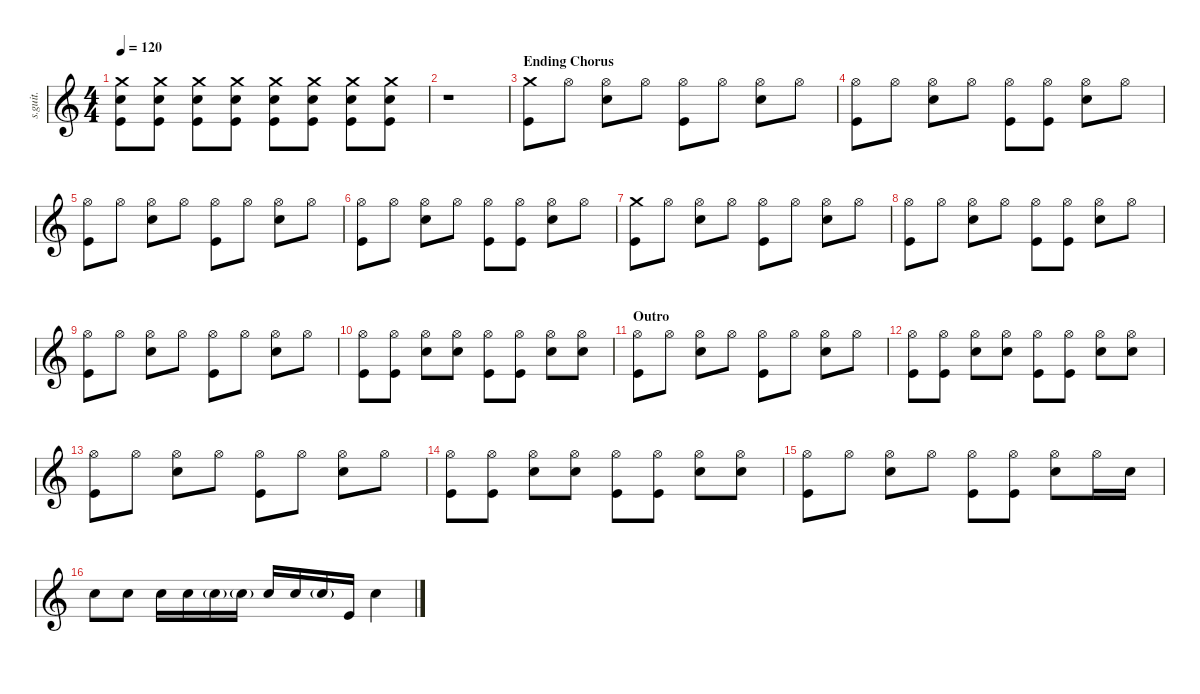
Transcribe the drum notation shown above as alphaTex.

\defaultSystemsLayout 4
\hideDynamics
\bracketExtendMode nobrackets
\track ("Patrick Wilson - Drums" "s.guit.") {instrument percussion}
\staff {score}
\articulation defaults
\ts (4 4)
\tempo 120
\clef g2
\ks c
("Crash medium (hit)" "Snare (hit) 2" "Kick (hit)").8{lyrics (0 "") lyrics (1 "") lyrics (2 "") lyrics (3 "") lyrics (4 "") dy f} ("Crash medium (hit)" "Snare (hit) 2" "Kick (hit)").8{lyrics (0 "") lyrics (1 "") lyrics (2 "") lyrics (3 "") lyrics (4 "")} ("Crash medium (hit)" "Snare (hit) 2" "Kick (hit)").8{lyrics (0 "") lyrics (1 "") lyrics (2 "") lyrics (3 "") lyrics (4 "")} ("Crash medium (hit)" "Snare (hit) 2" "Kick (hit)").8{lyrics (0 "") lyrics (1 "") lyrics (2 "") lyrics (3 "") lyrics (4 "")} ("Crash medium (hit)" "Snare (hit) 2" "Kick (hit)").8{lyrics (0 "") lyrics (1 "") lyrics (2 "") lyrics (3 "") lyrics (4 "")} ("Crash medium (hit)" "Snare (hit) 2" "Kick (hit)").8{lyrics (0 "") lyrics (1 "") lyrics (2 "") lyrics (3 "") lyrics (4 "")} ("Crash medium (hit)" "Snare (hit) 2" "Kick (hit)").8{lyrics (0 "") lyrics (1 "") lyrics (2 "") lyrics (3 "") lyrics (4 "")} ("Crash medium (hit)" "Snare (hit) 2" "Kick (hit)").8{lyrics (0 "") lyrics (1 "") lyrics (2 "") lyrics (3 "") lyrics (4 "")} |
r.1 |
\section ("" "Ending Chorus")
("Crash medium (hit)" "Kick (hit)").8{lyrics (0 "") lyrics (1 "") lyrics (2 "") lyrics (3 "") lyrics (4 "")} "Hi-Hat (open)".8{lyrics (0 "") lyrics (1 "") lyrics (2 "") lyrics (3 "") lyrics (4 "")} ("Hi-Hat (open)" "Snare (hit) 2").8{lyrics (0 "") lyrics (1 "") lyrics (2 "") lyrics (3 "") lyrics (4 "")} "Hi-Hat (open)".8{lyrics (0 "") lyrics (1 "") lyrics (2 "") lyrics (3 "") lyrics (4 "")} ("Hi-Hat (open)" "Kick (hit)").8{lyrics (0 "") lyrics (1 "") lyrics (2 "") lyrics (3 "") lyrics (4 "")} "Hi-Hat (open)".8{lyrics (0 "") lyrics (1 "") lyrics (2 "") lyrics (3 "") lyrics (4 "")} ("Hi-Hat (open)" "Snare (hit) 2").8{lyrics (0 "") lyrics (1 "") lyrics (2 "") lyrics (3 "") lyrics (4 "")} "Hi-Hat (open)".8{lyrics (0 "") lyrics (1 "") lyrics (2 "") lyrics (3 "") lyrics (4 "")} |
("Hi-Hat (open)" "Kick (hit)").8{lyrics (0 "") lyrics (1 "") lyrics (2 "") lyrics (3 "") lyrics (4 "")} "Hi-Hat (open)".8{lyrics (0 "") lyrics (1 "") lyrics (2 "") lyrics (3 "") lyrics (4 "")} ("Hi-Hat (open)" "Snare (hit) 2").8{lyrics (0 "") lyrics (1 "") lyrics (2 "") lyrics (3 "") lyrics (4 "")} "Hi-Hat (open)".8{lyrics (0 "") lyrics (1 "") lyrics (2 "") lyrics (3 "") lyrics (4 "")} ("Hi-Hat (open)" "Kick (hit)").8{lyrics (0 "") lyrics (1 "") lyrics (2 "") lyrics (3 "") lyrics (4 "")} ("Hi-Hat (open)" "Kick (hit)").8{lyrics (0 "") lyrics (1 "") lyrics (2 "") lyrics (3 "") lyrics (4 "")} ("Hi-Hat (open)" "Snare (hit) 2").8{lyrics (0 "") lyrics (1 "") lyrics (2 "") lyrics (3 "") lyrics (4 "")} "Hi-Hat (open)".8{lyrics (0 "") lyrics (1 "") lyrics (2 "") lyrics (3 "") lyrics (4 "")} |
("Hi-Hat (open)" "Kick (hit)").8{lyrics (0 "") lyrics (1 "") lyrics (2 "") lyrics (3 "") lyrics (4 "")} "Hi-Hat (open)".8{lyrics (0 "") lyrics (1 "") lyrics (2 "") lyrics (3 "") lyrics (4 "")} ("Hi-Hat (open)" "Snare (hit) 2").8{lyrics (0 "") lyrics (1 "") lyrics (2 "") lyrics (3 "") lyrics (4 "")} "Hi-Hat (open)".8{lyrics (0 "") lyrics (1 "") lyrics (2 "") lyrics (3 "") lyrics (4 "")} ("Hi-Hat (open)" "Kick (hit)").8{lyrics (0 "") lyrics (1 "") lyrics (2 "") lyrics (3 "") lyrics (4 "")} "Hi-Hat (open)".8{lyrics (0 "") lyrics (1 "") lyrics (2 "") lyrics (3 "") lyrics (4 "")} ("Hi-Hat (open)" "Snare (hit) 2").8{lyrics (0 "") lyrics (1 "") lyrics (2 "") lyrics (3 "") lyrics (4 "")} "Hi-Hat (open)".8{lyrics (0 "") lyrics (1 "") lyrics (2 "") lyrics (3 "") lyrics (4 "")} |
("Hi-Hat (open)" "Kick (hit)").8{lyrics (0 "") lyrics (1 "") lyrics (2 "") lyrics (3 "") lyrics (4 "")} "Hi-Hat (open)".8{lyrics (0 "") lyrics (1 "") lyrics (2 "") lyrics (3 "") lyrics (4 "")} ("Hi-Hat (open)" "Snare (hit) 2").8{lyrics (0 "") lyrics (1 "") lyrics (2 "") lyrics (3 "") lyrics (4 "")} "Hi-Hat (open)".8{lyrics (0 "") lyrics (1 "") lyrics (2 "") lyrics (3 "") lyrics (4 "")} ("Hi-Hat (open)" "Kick (hit)").8{lyrics (0 "") lyrics (1 "") lyrics (2 "") lyrics (3 "") lyrics (4 "")} ("Hi-Hat (open)" "Kick (hit)").8{lyrics (0 "") lyrics (1 "") lyrics (2 "") lyrics (3 "") lyrics (4 "")} ("Hi-Hat (open)" "Snare (hit) 2").8{lyrics (0 "") lyrics (1 "") lyrics (2 "") lyrics (3 "") lyrics (4 "")} "Hi-Hat (open)".8{lyrics (0 "") lyrics (1 "") lyrics (2 "") lyrics (3 "") lyrics (4 "")} |
("Crash medium (hit)" "Kick (hit)").8{lyrics (0 "") lyrics (1 "") lyrics (2 "") lyrics (3 "") lyrics (4 "")} "Hi-Hat (open)".8{lyrics (0 "") lyrics (1 "") lyrics (2 "") lyrics (3 "") lyrics (4 "")} ("Hi-Hat (open)" "Snare (hit) 2").8{lyrics (0 "") lyrics (1 "") lyrics (2 "") lyrics (3 "") lyrics (4 "")} "Hi-Hat (open)".8{lyrics (0 "") lyrics (1 "") lyrics (2 "") lyrics (3 "") lyrics (4 "")} ("Hi-Hat (open)" "Kick (hit)").8{lyrics (0 "") lyrics (1 "") lyrics (2 "") lyrics (3 "") lyrics (4 "")} "Hi-Hat (open)".8{lyrics (0 "") lyrics (1 "") lyrics (2 "") lyrics (3 "") lyrics (4 "")} ("Hi-Hat (open)" "Snare (hit) 2").8{lyrics (0 "") lyrics (1 "") lyrics (2 "") lyrics (3 "") lyrics (4 "")} "Hi-Hat (open)".8{lyrics (0 "") lyrics (1 "") lyrics (2 "") lyrics (3 "") lyrics (4 "")} |
("Hi-Hat (open)" "Kick (hit)").8{lyrics (0 "") lyrics (1 "") lyrics (2 "") lyrics (3 "") lyrics (4 "")} "Hi-Hat (open)".8{lyrics (0 "") lyrics (1 "") lyrics (2 "") lyrics (3 "") lyrics (4 "")} ("Hi-Hat (open)" "Snare (hit) 2").8{lyrics (0 "") lyrics (1 "") lyrics (2 "") lyrics (3 "") lyrics (4 "")} "Hi-Hat (open)".8{lyrics (0 "") lyrics (1 "") lyrics (2 "") lyrics (3 "") lyrics (4 "")} ("Hi-Hat (open)" "Kick (hit)").8{lyrics (0 "") lyrics (1 "") lyrics (2 "") lyrics (3 "") lyrics (4 "")} ("Hi-Hat (open)" "Kick (hit)").8{lyrics (0 "") lyrics (1 "") lyrics (2 "") lyrics (3 "") lyrics (4 "")} ("Hi-Hat (open)" "Snare (hit) 2").8{lyrics (0 "") lyrics (1 "") lyrics (2 "") lyrics (3 "") lyrics (4 "")} "Hi-Hat (open)".8{lyrics (0 "") lyrics (1 "") lyrics (2 "") lyrics (3 "") lyrics (4 "")} |
("Hi-Hat (open)" "Kick (hit)").8{lyrics (0 "") lyrics (1 "") lyrics (2 "") lyrics (3 "") lyrics (4 "")} "Hi-Hat (open)".8{lyrics (0 "") lyrics (1 "") lyrics (2 "") lyrics (3 "") lyrics (4 "")} ("Hi-Hat (open)" "Snare (hit) 2").8{lyrics (0 "") lyrics (1 "") lyrics (2 "") lyrics (3 "") lyrics (4 "")} "Hi-Hat (open)".8{lyrics (0 "") lyrics (1 "") lyrics (2 "") lyrics (3 "") lyrics (4 "")} ("Hi-Hat (open)" "Kick (hit)").8{lyrics (0 "") lyrics (1 "") lyrics (2 "") lyrics (3 "") lyrics (4 "")} "Hi-Hat (open)".8{lyrics (0 "") lyrics (1 "") lyrics (2 "") lyrics (3 "") lyrics (4 "")} ("Hi-Hat (open)" "Snare (hit) 2").8{lyrics (0 "") lyrics (1 "") lyrics (2 "") lyrics (3 "") lyrics (4 "")} "Hi-Hat (open)".8{lyrics (0 "") lyrics (1 "") lyrics (2 "") lyrics (3 "") lyrics (4 "")} |
("Hi-Hat (open)" "Kick (hit)").8{lyrics (0 "") lyrics (1 "") lyrics (2 "") lyrics (3 "") lyrics (4 "")} ("Hi-Hat (open)" "Kick (hit)").8{lyrics (0 "") lyrics (1 "") lyrics (2 "") lyrics (3 "") lyrics (4 "")} ("Hi-Hat (open)" "Snare (hit) 2").8{lyrics (0 "") lyrics (1 "") lyrics (2 "") lyrics (3 "") lyrics (4 "")} ("Hi-Hat (open)" "Snare (hit) 2").8{lyrics (0 "") lyrics (1 "") lyrics (2 "") lyrics (3 "") lyrics (4 "")} ("Hi-Hat (open)" "Kick (hit)").8{lyrics (0 "") lyrics (1 "") lyrics (2 "") lyrics (3 "") lyrics (4 "")} ("Hi-Hat (open)" "Kick (hit)").8{lyrics (0 "") lyrics (1 "") lyrics (2 "") lyrics (3 "") lyrics (4 "")} ("Hi-Hat (open)" "Snare (hit) 2").8{lyrics (0 "") lyrics (1 "") lyrics (2 "") lyrics (3 "") lyrics (4 "")} ("Hi-Hat (open)" "Snare (hit) 2").8{lyrics (0 "") lyrics (1 "") lyrics (2 "") lyrics (3 "") lyrics (4 "")} |
\section ("" "Outro")
("Hi-Hat (open)" "Kick (hit)").8{lyrics (0 "") lyrics (1 "") lyrics (2 "") lyrics (3 "") lyrics (4 "")} "Hi-Hat (open)".8{lyrics (0 "") lyrics (1 "") lyrics (2 "") lyrics (3 "") lyrics (4 "")} ("Hi-Hat (open)" "Snare (hit) 2").8{lyrics (0 "") lyrics (1 "") lyrics (2 "") lyrics (3 "") lyrics (4 "")} "Hi-Hat (open)".8{lyrics (0 "") lyrics (1 "") lyrics (2 "") lyrics (3 "") lyrics (4 "")} ("Hi-Hat (open)" "Kick (hit)").8{lyrics (0 "") lyrics (1 "") lyrics (2 "") lyrics (3 "") lyrics (4 "")} "Hi-Hat (open)".8{lyrics (0 "") lyrics (1 "") lyrics (2 "") lyrics (3 "") lyrics (4 "")} ("Hi-Hat (open)" "Snare (hit) 2").8{lyrics (0 "") lyrics (1 "") lyrics (2 "") lyrics (3 "") lyrics (4 "")} "Hi-Hat (open)".8{lyrics (0 "") lyrics (1 "") lyrics (2 "") lyrics (3 "") lyrics (4 "")} |
("Hi-Hat (open)" "Kick (hit)").8{lyrics (0 "") lyrics (1 "") lyrics (2 "") lyrics (3 "") lyrics (4 "")} ("Hi-Hat (open)" "Kick (hit)").8{lyrics (0 "") lyrics (1 "") lyrics (2 "") lyrics (3 "") lyrics (4 "")} ("Hi-Hat (open)" "Snare (hit) 2").8{lyrics (0 "") lyrics (1 "") lyrics (2 "") lyrics (3 "") lyrics (4 "")} ("Hi-Hat (open)" "Snare (hit) 2").8{lyrics (0 "") lyrics (1 "") lyrics (2 "") lyrics (3 "") lyrics (4 "")} ("Hi-Hat (open)" "Kick (hit)").8{lyrics (0 "") lyrics (1 "") lyrics (2 "") lyrics (3 "") lyrics (4 "")} ("Hi-Hat (open)" "Kick (hit)").8{lyrics (0 "") lyrics (1 "") lyrics (2 "") lyrics (3 "") lyrics (4 "")} ("Hi-Hat (open)" "Snare (hit) 2").8{lyrics (0 "") lyrics (1 "") lyrics (2 "") lyrics (3 "") lyrics (4 "")} ("Hi-Hat (open)" "Snare (hit) 2").8{lyrics (0 "") lyrics (1 "") lyrics (2 "") lyrics (3 "") lyrics (4 "")} |
("Hi-Hat (open)" "Kick (hit)").8{lyrics (0 "") lyrics (1 "") lyrics (2 "") lyrics (3 "") lyrics (4 "")} "Hi-Hat (open)".8{lyrics (0 "") lyrics (1 "") lyrics (2 "") lyrics (3 "") lyrics (4 "")} ("Hi-Hat (open)" "Snare (hit) 2").8{lyrics (0 "") lyrics (1 "") lyrics (2 "") lyrics (3 "") lyrics (4 "")} "Hi-Hat (open)".8{lyrics (0 "") lyrics (1 "") lyrics (2 "") lyrics (3 "") lyrics (4 "")} ("Hi-Hat (open)" "Kick (hit)").8{lyrics (0 "") lyrics (1 "") lyrics (2 "") lyrics (3 "") lyrics (4 "")} "Hi-Hat (open)".8{lyrics (0 "") lyrics (1 "") lyrics (2 "") lyrics (3 "") lyrics (4 "")} ("Hi-Hat (open)" "Snare (hit) 2").8{lyrics (0 "") lyrics (1 "") lyrics (2 "") lyrics (3 "") lyrics (4 "")} "Hi-Hat (open)".8{lyrics (0 "") lyrics (1 "") lyrics (2 "") lyrics (3 "") lyrics (4 "")} |
("Hi-Hat (open)" "Kick (hit)").8{lyrics (0 "") lyrics (1 "") lyrics (2 "") lyrics (3 "") lyrics (4 "")} ("Hi-Hat (open)" "Kick (hit)").8{lyrics (0 "") lyrics (1 "") lyrics (2 "") lyrics (3 "") lyrics (4 "")} ("Hi-Hat (open)" "Snare (hit) 2").8{lyrics (0 "") lyrics (1 "") lyrics (2 "") lyrics (3 "") lyrics (4 "")} ("Hi-Hat (open)" "Snare (hit) 2").8{lyrics (0 "") lyrics (1 "") lyrics (2 "") lyrics (3 "") lyrics (4 "")} ("Hi-Hat (open)" "Kick (hit)").8{lyrics (0 "") lyrics (1 "") lyrics (2 "") lyrics (3 "") lyrics (4 "")} ("Hi-Hat (open)" "Kick (hit)").8{lyrics (0 "") lyrics (1 "") lyrics (2 "") lyrics (3 "") lyrics (4 "")} ("Hi-Hat (open)" "Snare (hit) 2").8{lyrics (0 "") lyrics (1 "") lyrics (2 "") lyrics (3 "") lyrics (4 "")} ("Hi-Hat (open)" "Snare (hit) 2").8{lyrics (0 "") lyrics (1 "") lyrics (2 "") lyrics (3 "") lyrics (4 "")} |
("Hi-Hat (open)" "Kick (hit)").8{lyrics (0 "") lyrics (1 "") lyrics (2 "") lyrics (3 "") lyrics (4 "")} "Hi-Hat (open)".8{lyrics (0 "") lyrics (1 "") lyrics (2 "") lyrics (3 "") lyrics (4 "")} ("Hi-Hat (open)" "Snare (hit) 2").8{lyrics (0 "") lyrics (1 "") lyrics (2 "") lyrics (3 "") lyrics (4 "")} "Hi-Hat (open)".8{lyrics (0 "") lyrics (1 "") lyrics (2 "") lyrics (3 "") lyrics (4 "")} ("Hi-Hat (open)" "Kick (hit)").8{lyrics (0 "") lyrics (1 "") lyrics (2 "") lyrics (3 "") lyrics (4 "")} ("Hi-Hat (open)" "Kick (hit)").8{lyrics (0 "") lyrics (1 "") lyrics (2 "") lyrics (3 "") lyrics (4 "")} ("Hi-Hat (open)" "Snare (hit) 2").8{lyrics (0 "") lyrics (1 "") lyrics (2 "") lyrics (3 "") lyrics (4 "")} "Hi-Hat (open)".16{lyrics (0 "") lyrics (1 "") lyrics (2 "") lyrics (3 "") lyrics (4 "")} "Snare (hit) 2".16{lyrics (0 "") lyrics (1 "") lyrics (2 "") lyrics (3 "") lyrics (4 "")} |
"Snare (hit) 2".8{lyrics (0 "") lyrics (1 "") lyrics (2 "") lyrics (3 "") lyrics (4 "")} "Snare (hit) 2".8{lyrics (0 "") lyrics (1 "") lyrics (2 "") lyrics (3 "") lyrics (4 "")} "Snare (hit) 2".16{lyrics (0 "") lyrics (1 "") lyrics (2 "") lyrics (3 "") lyrics (4 "")} "Snare (hit) 2".16{lyrics (0 "") lyrics (1 "") lyrics (2 "") lyrics (3 "") lyrics (4 "")} "Snare (hit) 2"{g}.16{lyrics (0 "") lyrics (1 "") lyrics (2 "") lyrics (3 "") lyrics (4 "") dy mp} "Snare (hit) 2"{g}.16{lyrics (0 "") lyrics (1 "") lyrics (2 "") lyrics (3 "") lyrics (4 "")} "Snare (hit) 2".16{lyrics (0 "") lyrics (1 "") lyrics (2 "") lyrics (3 "") lyrics (4 "") dy f} "Snare (hit) 2".16{lyrics (0 "") lyrics (1 "") lyrics (2 "") lyrics (3 "") lyrics (4 "")} "Snare (hit) 2"{g}.16{lyrics (0 "") lyrics (1 "") lyrics (2 "") lyrics (3 "") lyrics (4 "") dy mp} "Kick (hit)".16{lyrics (0 "") lyrics (1 "") lyrics (2 "") lyrics (3 "") lyrics (4 "") dy f} "Snare (hit) 2".4{lyrics (0 "") lyrics (1 "") lyrics (2 "") lyrics (3 "") lyrics (4 "")}
